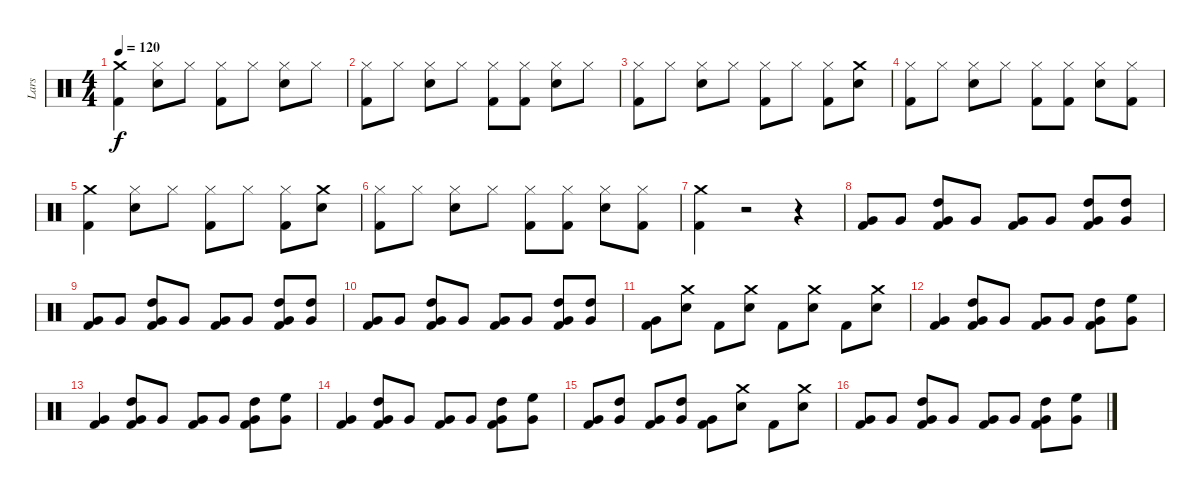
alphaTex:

\track ("Lars" "Lars") {instrument percussion}
\staff {score}
\articulation defaults
\ts (4 4)
\tempo 120
\clef neutral
\ks c
("Crash medium (hit)" "Kick (hit) 2").4{dy f} ("Hi-Hat (closed)" "Snare (hit) 2").8 "Hi-Hat (closed)".8 ("Hi-Hat (closed)" "Kick (hit) 2").8 "Hi-Hat (closed)".8 ("Snare (hit) 2" "Hi-Hat (closed)").8 "Hi-Hat (closed)".8 |
("Hi-Hat (closed)" "Kick (hit) 2").8 "Hi-Hat (closed)".8 ("Snare (hit) 2" "Hi-Hat (closed)").8 "Hi-Hat (closed)".8 ("Kick (hit) 2" "Hi-Hat (closed)").8 ("Kick (hit) 2" "Hi-Hat (closed)").8 ("Snare (hit) 2" "Hi-Hat (closed)").8 "Hi-Hat (closed)".8 |
("Hi-Hat (closed)" "Kick (hit) 2").8 "Hi-Hat (closed)".8 ("Snare (hit) 2" "Hi-Hat (closed)").8 "Hi-Hat (closed)".8 ("Hi-Hat (closed)" "Kick (hit) 2").8 "Hi-Hat (closed)".8 ("Hi-Hat (closed)" "Kick (hit) 2").8 ("Crash medium (hit)" "Snare (hit) 2").8 |
("Hi-Hat (closed)" "Kick (hit) 2").8 "Hi-Hat (closed)".8 ("Snare (hit) 2" "Hi-Hat (closed)").8 "Hi-Hat (closed)".8 ("Kick (hit) 2" "Hi-Hat (closed)").8 ("Kick (hit) 2" "Hi-Hat (closed)").8 ("Snare (hit) 2" "Hi-Hat (closed)").8 ("Kick (hit) 2" "Hi-Hat (closed)").8 |
("Kick (hit) 2" "Crash medium (hit)").4 ("Snare (hit) 2" "Hi-Hat (closed)").8 "Hi-Hat (closed)".8 ("Hi-Hat (closed)" "Kick (hit) 2").8 "Hi-Hat (closed)".8 ("Hi-Hat (closed)" "Kick (hit) 2").8 ("Crash medium (hit)" "Snare (hit) 2").8 |
("Hi-Hat (closed)" "Kick (hit) 2").8 "Hi-Hat (closed)".8 ("Snare (hit) 2" "Hi-Hat (closed)").8 "Hi-Hat (closed)".8 ("Kick (hit) 2" "Hi-Hat (closed)").8 ("Kick (hit) 2" "Hi-Hat (closed)").8 ("Snare (hit) 2" "Hi-Hat (closed)").8 ("Kick (hit) 2" "Hi-Hat (closed)").8 |
("Kick (hit) 2" "Crash medium (hit)").4 r.2 r.4 |
("Very Low Tom (hit)" "Kick (hit) 2").8 "Very Low Tom (hit)".8 ("High Tom (hit)" "Very Low Tom (hit)" "Kick (hit) 2").8 "Very Low Tom (hit)".8 ("Very Low Tom (hit)" "Kick (hit) 2").8 "Very Low Tom (hit)".8 ("High Tom (hit)" "Very Low Tom (hit)" "Kick (hit) 2").8 ("High Tom (hit)" "Very Low Tom (hit)").8 |
("Very Low Tom (hit)" "Kick (hit) 2").8 "Very Low Tom (hit)".8 ("High Tom (hit)" "Very Low Tom (hit)" "Kick (hit) 2").8 "Very Low Tom (hit)".8 ("Very Low Tom (hit)" "Kick (hit) 2").8 "Very Low Tom (hit)".8 ("High Tom (hit)" "Very Low Tom (hit)" "Kick (hit) 2").8 ("High Tom (hit)" "Very Low Tom (hit)").8 |
("Very Low Tom (hit)" "Kick (hit) 2").8 "Very Low Tom (hit)".8 ("High Tom (hit)" "Very Low Tom (hit)" "Kick (hit) 2").8 "Very Low Tom (hit)".8 ("Very Low Tom (hit)" "Kick (hit) 2").8 "Very Low Tom (hit)".8 ("High Tom (hit)" "Very Low Tom (hit)" "Kick (hit) 2").8 ("High Tom (hit)" "Very Low Tom (hit)").8 |
("Kick (hit) 2" "Very Low Tom (hit)").8 ("Crash medium (hit)" "Snare (hit) 2").8 "Kick (hit) 2".8 ("Snare (hit) 2" "Crash medium (hit)").8 "Kick (hit) 2".8 ("Crash medium (hit)" "Snare (hit) 2").8 "Kick (hit) 2".8 ("Crash medium (hit)" "Snare (hit) 2").8 |
("Very Low Tom (hit)" "Kick (hit) 2").4 ("High Tom (hit)" "Very Low Tom (hit)" "Kick (hit) 2").8 "Very Low Tom (hit)".8 ("Very Low Tom (hit)" "Kick (hit) 2").8 "Very Low Tom (hit)".8 ("High Tom (hit)" "Very Low Tom (hit)" "Kick (hit) 2").8 ("High Floor Tom (hit)" "Very Low Tom (hit)").8 |
("Very Low Tom (hit)" "Kick (hit) 2").4 ("High Tom (hit)" "Very Low Tom (hit)" "Kick (hit) 2").8 "Very Low Tom (hit)".8 ("Very Low Tom (hit)" "Kick (hit) 2").8 "Very Low Tom (hit)".8 ("High Tom (hit)" "Very Low Tom (hit)" "Kick (hit) 2").8 ("High Floor Tom (hit)" "Very Low Tom (hit)").8 |
("Very Low Tom (hit)" "Kick (hit) 2").4 ("High Tom (hit)" "Very Low Tom (hit)" "Kick (hit) 2").8 "Very Low Tom (hit)".8 ("Very Low Tom (hit)" "Kick (hit) 2").8 "Very Low Tom (hit)".8 ("High Tom (hit)" "Very Low Tom (hit)" "Kick (hit) 2").8 ("High Floor Tom (hit)" "Very Low Tom (hit)").8 |
("Very Low Tom (hit)" "Kick (hit) 2").8 ("High Tom (hit)" "Very Low Tom (hit)").8 ("Very Low Tom (hit)" "Kick (hit) 2").8 ("High Tom (hit)" "Very Low Tom (hit)").8 ("Very Low Tom (hit)" "Kick (hit) 2").8 ("Crash medium (hit)" "Snare (hit) 2").8 "Kick (hit) 2".8 ("Snare (hit) 2" "Crash medium (hit)").8 |
("Very Low Tom (hit)" "Kick (hit) 2").8 "Very Low Tom (hit)".8 ("High Tom (hit)" "Very Low Tom (hit)" "Kick (hit) 2").8 "Very Low Tom (hit)".8 ("Very Low Tom (hit)" "Kick (hit) 2").8 "Very Low Tom (hit)".8 ("High Tom (hit)" "Very Low Tom (hit)" "Kick (hit) 2").8 ("High Floor Tom (hit)" "Very Low Tom (hit)").8
